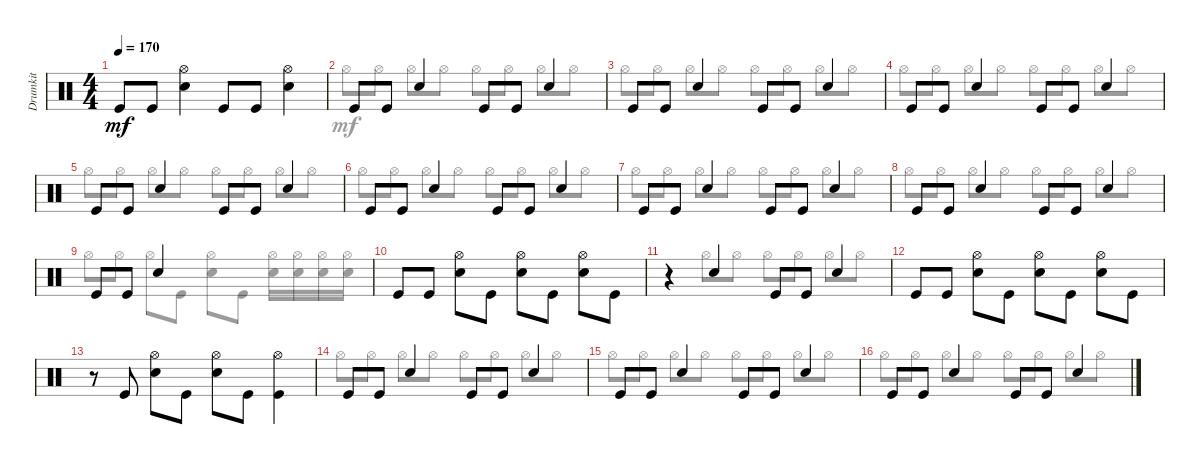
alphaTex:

\track ("Drumkit" "Drumkit") {instrument percussion}
\staff {score}
\articulation defaults
\voice
\ts (4 4)
\tempo 170
\clef neutral
\ks c "Kick (hit)".8{dy mf} "Kick (hit)".8
("Snare (hit) 2" "Hi-Hat (open)").4 "Kick (hit)".8 "Kick (hit)".8 ("Snare (hit) 2" "Hi-Hat (open)").4 |
"Kick (hit)".8 "Kick (hit)".8 "Snare (hit) 2".4 "Kick (hit)".8 "Kick (hit)".8 "Snare (hit) 2".4 |
"Kick (hit)".8 "Kick (hit)".8 "Snare (hit) 2".4 "Kick (hit)".8 "Kick (hit)".8 "Snare (hit) 2".4 |
"Kick (hit)".8 "Kick (hit)".8 "Snare (hit) 2".4 "Kick (hit)".8 "Kick (hit)".8 "Snare (hit) 2".4 |
"Kick (hit)".8 "Kick (hit)".8 "Snare (hit) 2".4 "Kick (hit)".8 "Kick (hit)".8 "Snare (hit) 2".4 |
"Kick (hit)".8 "Kick (hit)".8 "Snare (hit) 2".4 "Kick (hit)".8 "Kick (hit)".8 "Snare (hit) 2".4 |
"Kick (hit)".8 "Kick (hit)".8 "Snare (hit) 2".4 "Kick (hit)".8 "Kick (hit)".8 "Snare (hit) 2".4 |
"Kick (hit)".8 "Kick (hit)".8 "Snare (hit) 2".4 "Kick (hit)".8 "Kick (hit)".8 "Snare (hit) 2".4 |
"Kick (hit)".8 "Kick (hit)".8 "Snare (hit) 2".4 |
"Kick (hit)".8 "Kick (hit)".8 ("Snare (hit) 2" "Hi-Hat (open)").8 "Kick (hit)".8 ("Snare (hit) 2" "Hi-Hat (open)").8 "Kick (hit)".8 ("Snare (hit) 2" "Hi-Hat (open)").8 "Kick (hit)".8 |
r.4 "Snare (hit) 2".4 "Kick (hit)".8 "Kick (hit)".8 "Snare (hit) 2".4 |
"Kick (hit)".8 "Kick (hit)".8 ("Snare (hit) 2" "Hi-Hat (open)").8 "Kick (hit)".8 ("Snare (hit) 2" "Hi-Hat (open)").8 "Kick (hit)".8 ("Snare (hit) 2" "Hi-Hat (open)").8 "Kick (hit)".8 |
r.8 "Kick (hit)".8 ("Snare (hit) 2" "Hi-Hat (open)").8 "Kick (hit)".8 ("Snare (hit) 2" "Hi-Hat (open)").8 "Kick (hit)".8 ("Kick (hit)" "Hi-Hat (open)").4 |
"Kick (hit)".8 "Kick (hit)".8 "Snare (hit) 2".4 "Kick (hit)".8 "Kick (hit)".8 "Snare (hit) 2".4 |
"Kick (hit)".8 "Kick (hit)".8 "Snare (hit) 2".4 "Kick (hit)".8 "Kick (hit)".8 "Snare (hit) 2".4 |
"Kick (hit)".8 "Kick (hit)".8 "Snare (hit) 2".4 "Kick (hit)".8 "Kick (hit)".8 "Snare (hit) 2".4
\voice
\clef neutral
\ottava regular
\simile none
\ks c
|
"Hi-Hat (open)".8 "Hi-Hat (open)".8 "Hi-Hat (open)".8 "Hi-Hat (open)".8 "Hi-Hat (open)".8 "Hi-Hat (open)".8 "Hi-Hat (open)".8 "Hi-Hat (open)".8 |
"Hi-Hat (open)".8 "Hi-Hat (open)".8 "Hi-Hat (open)".8 "Hi-Hat (open)".8 "Hi-Hat (open)".8 "Hi-Hat (open)".8 "Hi-Hat (open)".8 "Hi-Hat (open)".8 |
"Hi-Hat (open)".8 "Hi-Hat (open)".8 "Hi-Hat (open)".8 "Hi-Hat (open)".8 "Hi-Hat (open)".8 "Hi-Hat (open)".8 "Hi-Hat (open)".8 "Hi-Hat (open)".8 |
"Hi-Hat (open)".8 "Hi-Hat (open)".8 "Hi-Hat (open)".8 "Hi-Hat (open)".8 "Hi-Hat (open)".8 "Hi-Hat (open)".8 "Hi-Hat (open)".8 "Hi-Hat (open)".8 |
"Hi-Hat (open)".8 "Hi-Hat (open)".8 "Hi-Hat (open)".8 "Hi-Hat (open)".8 "Hi-Hat (open)".8 "Hi-Hat (open)".8 "Hi-Hat (open)".8 "Hi-Hat (open)".8 |
"Hi-Hat (open)".8 "Hi-Hat (open)".8 "Hi-Hat (open)".8 "Hi-Hat (open)".8 "Hi-Hat (open)".8 "Hi-Hat (open)".8 "Hi-Hat (open)".8 "Hi-Hat (open)".8 |
"Hi-Hat (open)".8 "Hi-Hat (open)".8 "Hi-Hat (open)".8 "Hi-Hat (open)".8 "Hi-Hat (open)".8 "Hi-Hat (open)".8 "Hi-Hat (open)".8 "Hi-Hat (open)".8 |
"Hi-Hat (open)".8 "Hi-Hat (open)".8 "Hi-Hat (open)".8 "Kick (hit)".8 ("Snare (hit) 2" "Hi-Hat (open)").8 "Kick (hit)".8 ("Snare (hit) 2" "Hi-Hat (open)").16 ("Snare (hit) 2" "Hi-Hat (open)").16 ("Snare (hit) 2" "Hi-Hat (open)").16 ("Snare (hit) 2" "Hi-Hat (open)").16 |
|
r.4 "Hi-Hat (open)".8 "Hi-Hat (open)".8 "Hi-Hat (open)".8 "Hi-Hat (open)".8 "Hi-Hat (open)".8 "Hi-Hat (open)".8 |
|
|
"Hi-Hat (open)".8 "Hi-Hat (open)".8 "Hi-Hat (open)".8 "Hi-Hat (open)".8 "Hi-Hat (open)".8 "Hi-Hat (open)".8 "Hi-Hat (open)".8 "Hi-Hat (open)".8 |
"Hi-Hat (open)".8 "Hi-Hat (open)".8 "Hi-Hat (open)".8 "Hi-Hat (open)".8 "Hi-Hat (open)".8 "Hi-Hat (open)".8 "Hi-Hat (open)".8 "Hi-Hat (open)".8 |
"Hi-Hat (open)".8 "Hi-Hat (open)".8 "Hi-Hat (open)".8 "Hi-Hat (open)".8 "Hi-Hat (open)".8 "Hi-Hat (open)".8 "Hi-Hat (open)".8 "Hi-Hat (open)".8
